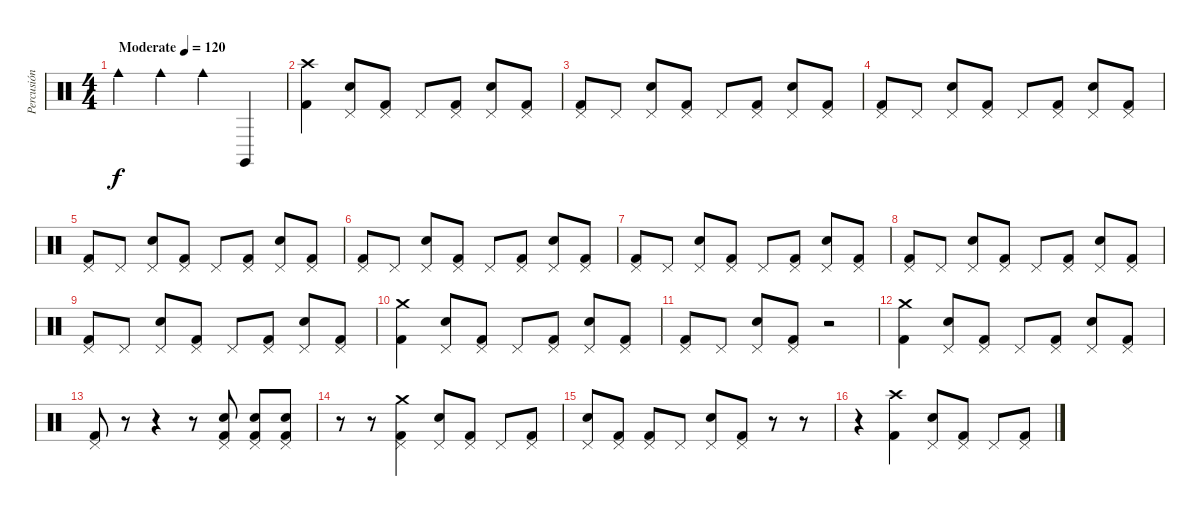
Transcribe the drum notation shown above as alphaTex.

\track ("Percusión" "Percusión") {instrument percussion}
\staff {score}
\articulation defaults
\ts (4 4)
\tempo (120 "Moderate")
\clef neutral
\ks c "Cowbell medium (hit)".4{dy f} "Cowbell medium (hit)".4 "Cowbell medium (hit)".4 "Claves (hit)".4
|
("Crash high (hit)" "Kick (hit) 2").4 ("Pedal Hi-Hat (hit)" "Electric Snare (hit)").8 ("Pedal Hi-Hat (hit)" "Kick (hit) 2").8 "Pedal Hi-Hat (hit)".8 ("Pedal Hi-Hat (hit)" "Kick (hit) 2").8 ("Pedal Hi-Hat (hit)" "Electric Snare (hit)").8 ("Pedal Hi-Hat (hit)" "Kick (hit) 2").8 |
("Pedal Hi-Hat (hit)" "Kick (hit) 2").8 "Pedal Hi-Hat (hit)".8 ("Pedal Hi-Hat (hit)" "Electric Snare (hit)").8 ("Pedal Hi-Hat (hit)" "Kick (hit) 2").8 "Pedal Hi-Hat (hit)".8 ("Pedal Hi-Hat (hit)" "Kick (hit) 2").8 ("Pedal Hi-Hat (hit)" "Electric Snare (hit)").8 ("Pedal Hi-Hat (hit)" "Kick (hit) 2").8 |
("Pedal Hi-Hat (hit)" "Kick (hit) 2").8 "Pedal Hi-Hat (hit)".8 ("Pedal Hi-Hat (hit)" "Electric Snare (hit)").8 ("Pedal Hi-Hat (hit)" "Kick (hit) 2").8 "Pedal Hi-Hat (hit)".8 ("Pedal Hi-Hat (hit)" "Kick (hit) 2").8 ("Pedal Hi-Hat (hit)" "Electric Snare (hit)").8 ("Pedal Hi-Hat (hit)" "Kick (hit) 2").8 |
("Pedal Hi-Hat (hit)" "Kick (hit) 2").8 "Pedal Hi-Hat (hit)".8 ("Pedal Hi-Hat (hit)" "Electric Snare (hit)").8 ("Pedal Hi-Hat (hit)" "Kick (hit) 2").8 "Pedal Hi-Hat (hit)".8 ("Pedal Hi-Hat (hit)" "Kick (hit) 2").8 ("Pedal Hi-Hat (hit)" "Electric Snare (hit)").8 ("Pedal Hi-Hat (hit)" "Kick (hit) 2").8 |
("Pedal Hi-Hat (hit)" "Kick (hit) 2").8 "Pedal Hi-Hat (hit)".8 ("Pedal Hi-Hat (hit)" "Electric Snare (hit)").8 ("Pedal Hi-Hat (hit)" "Kick (hit) 2").8 "Pedal Hi-Hat (hit)".8 ("Pedal Hi-Hat (hit)" "Kick (hit) 2").8 ("Pedal Hi-Hat (hit)" "Electric Snare (hit)").8 ("Pedal Hi-Hat (hit)" "Kick (hit) 2").8 |
("Pedal Hi-Hat (hit)" "Kick (hit) 2").8 "Pedal Hi-Hat (hit)".8 ("Pedal Hi-Hat (hit)" "Electric Snare (hit)").8 ("Pedal Hi-Hat (hit)" "Kick (hit) 2").8 "Pedal Hi-Hat (hit)".8 ("Pedal Hi-Hat (hit)" "Kick (hit) 2").8 ("Pedal Hi-Hat (hit)" "Electric Snare (hit)").8 ("Pedal Hi-Hat (hit)" "Kick (hit) 2").8 |
("Pedal Hi-Hat (hit)" "Kick (hit) 2").8 "Pedal Hi-Hat (hit)".8 ("Pedal Hi-Hat (hit)" "Electric Snare (hit)").8 ("Pedal Hi-Hat (hit)" "Kick (hit) 2").8 "Pedal Hi-Hat (hit)".8 ("Pedal Hi-Hat (hit)" "Kick (hit) 2").8 ("Pedal Hi-Hat (hit)" "Electric Snare (hit)").8 ("Pedal Hi-Hat (hit)" "Kick (hit) 2").8 |
("Pedal Hi-Hat (hit)" "Kick (hit) 2").8 "Pedal Hi-Hat (hit)".8 ("Pedal Hi-Hat (hit)" "Electric Snare (hit)").8 ("Pedal Hi-Hat (hit)" "Kick (hit) 2").8 "Pedal Hi-Hat (hit)".8 ("Pedal Hi-Hat (hit)" "Kick (hit) 2").8 ("Pedal Hi-Hat (hit)" "Electric Snare (hit)").8 ("Pedal Hi-Hat (hit)" "Kick (hit) 2").8 |
("Crash medium (hit)" "Kick (hit) 2").4 ("Pedal Hi-Hat (hit)" "Electric Snare (hit)").8 ("Pedal Hi-Hat (hit)" "Kick (hit) 2").8 "Pedal Hi-Hat (hit)".8 ("Pedal Hi-Hat (hit)" "Kick (hit) 2").8 ("Pedal Hi-Hat (hit)" "Electric Snare (hit)").8 ("Pedal Hi-Hat (hit)" "Kick (hit) 2").8 |
("Pedal Hi-Hat (hit)" "Kick (hit) 2").8 "Pedal Hi-Hat (hit)".8 ("Pedal Hi-Hat (hit)" "Electric Snare (hit)").8 ("Pedal Hi-Hat (hit)" "Kick (hit) 2").8 r.2 |
("Crash medium (hit)" "Kick (hit) 2").4 ("Pedal Hi-Hat (hit)" "Electric Snare (hit)").8 ("Pedal Hi-Hat (hit)" "Kick (hit) 2").8 "Pedal Hi-Hat (hit)".8 ("Pedal Hi-Hat (hit)" "Kick (hit) 2").8 ("Pedal Hi-Hat (hit)" "Electric Snare (hit)").8 ("Pedal Hi-Hat (hit)" "Kick (hit) 2").8 |
("Pedal Hi-Hat (hit)" "Kick (hit) 2").8 r.8 r.4 r.8 ("Pedal Hi-Hat (hit)" "Electric Snare (hit)" "Kick (hit) 2").8 ("Pedal Hi-Hat (hit)" "Electric Snare (hit)" "Kick (hit) 2").8 ("Pedal Hi-Hat (hit)" "Electric Snare (hit)" "Kick (hit) 2").8 |
r.8 r.8 ("Crash medium (hit)" "Pedal Hi-Hat (hit)" "Kick (hit) 2").4 ("Pedal Hi-Hat (hit)" "Electric Snare (hit)").8 ("Pedal Hi-Hat (hit)" "Kick (hit) 2").8 "Pedal Hi-Hat (hit)".8 ("Pedal Hi-Hat (hit)" "Kick (hit) 2").8 |
("Pedal Hi-Hat (hit)" "Electric Snare (hit)").8 ("Pedal Hi-Hat (hit)" "Kick (hit) 2").8 ("Pedal Hi-Hat (hit)" "Kick (hit) 2").8 "Pedal Hi-Hat (hit)".8 ("Pedal Hi-Hat (hit)" "Electric Snare (hit)").8 ("Pedal Hi-Hat (hit)" "Kick (hit) 2").8 r.8 r.8 |
r.4 ("Crash high (hit)" "Kick (hit) 2").4 ("Pedal Hi-Hat (hit)" "Electric Snare (hit)").8 ("Pedal Hi-Hat (hit)" "Kick (hit) 2").8 "Pedal Hi-Hat (hit)".8 ("Pedal Hi-Hat (hit)" "Kick (hit) 2").8
